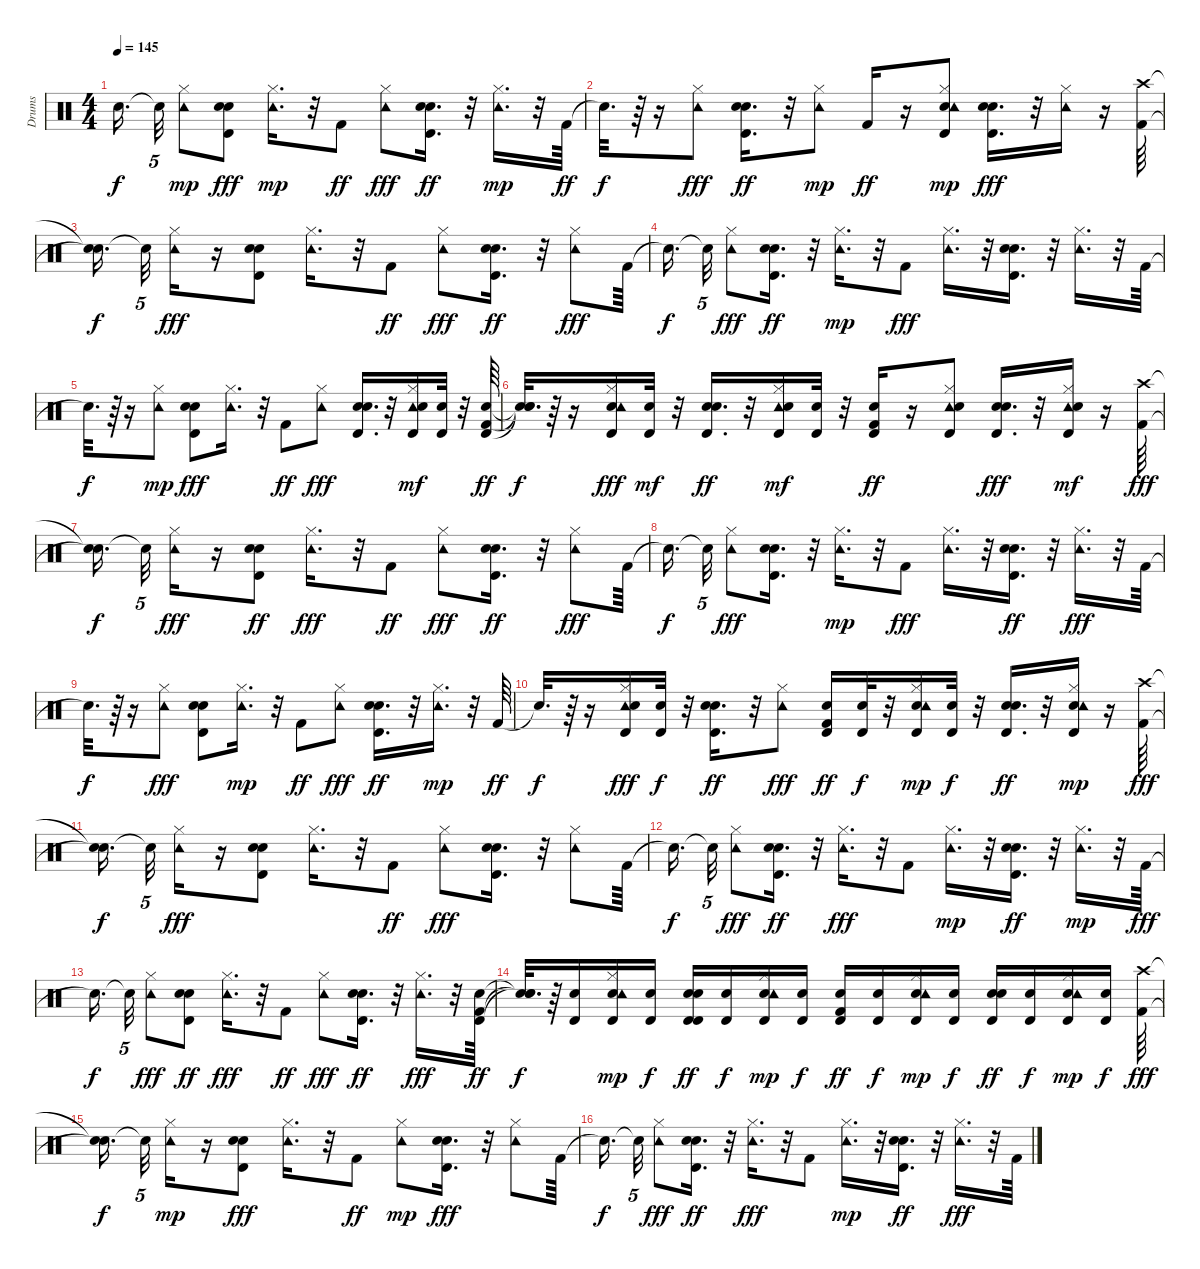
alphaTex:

\track ("Drums" "Drums") {instrument percussion}
\staff {score}
\articulation defaults
\ts (4 4)
\tempo 145
\clef neutral
\ks c "Snare (hit)"{t}.16{d dy f} "Snare (hit)"{t}.32{tu (5 4)}
("Hi-Hat (closed)" "Tambourine (hit)").8{dy mp} ("Snare (hit) 2" "Hand Clap (hit)" "Timbale high (hit)").8{dy fff} ("Hi-Hat (closed)" "Tambourine (hit)").16{d dy mp} r.32 "Kick (hit) 2".8{dy ff} ("Tambourine (hit)" "Hi-Hat (closed)").8{dy fff} ("Hand Clap (hit)" "Snare (hit) 2" "Timbale high (hit)").16{d dy ff} r.32 ("Hi-Hat (closed)" "Tambourine (hit)").16{d dy mp} r.32 "Kick (hit) 2".64{dy ff} |
"Snare (hit)"{t}.32{d dy f} r.64 r.16 ("Tambourine (hit)" "Hi-Hat (closed)").8{dy fff} ("Hand Clap (hit)" "Snare (hit) 2" "Timbale high (hit)").16{d dy ff} r.32 ("Hi-Hat (closed)" "Tambourine (hit)").8{dy mp} "Kick (hit) 2".16{dy ff} r.16 ("Timbale high (hit)" "Snare (hit) 2" "Hi-Hat (closed)" "Tambourine (hit)").8{dy mp} ("Snare (hit) 2" "Timbale high (hit)" "Hand Clap (hit)").16{d dy fff} r.32 ("Tambourine (hit)" "Hi-Hat (closed)").16 r.16 ("Crash high (hit)" "Kick (hit) 2").64 |
("Snare (hit)"{t} "Snare (hit)"{t}).16{d dy f} "Snare (hit)"{t}.32{tu (5 4)} ("Tambourine (hit)" "Hi-Hat (closed)").16{dy fff} r.16 ("Snare (hit) 2" "Timbale high (hit)" "Hand Clap (hit)").8 ("Tambourine (hit)" "Hi-Hat (closed)").16{d} r.32 "Kick (hit) 2".8{dy ff} ("Tambourine (hit)" "Hi-Hat (closed)").8{dy fff} ("Snare (hit) 2" "Hand Clap (hit)" "Timbale high (hit)").16{d dy ff} r.32 ("Tambourine (hit)" "Hi-Hat (closed)").8{dy fff} "Kick (hit) 2".64 |
"Snare (hit)"{t}.16{d dy f} "Snare (hit)"{t}.32{tu (5 4)} ("Tambourine (hit)" "Hi-Hat (closed)").8{dy fff} ("Snare (hit) 2" "Hand Clap (hit)" "Timbale high (hit)").16{d dy ff} r.32 ("Hi-Hat (closed)" "Tambourine (hit)").16{d dy mp} r.32 "Kick (hit) 2".8{dy fff} ("Tambourine (hit)" "Hi-Hat (closed)").16{d} r.32 ("Timbale high (hit)" "Snare (hit) 2" "Hand Clap (hit)").16{d} r.32 ("Tambourine (hit)" "Hi-Hat (closed)").16{d} r.32 "Kick (hit) 2".64 |
"Snare (hit)"{t}.32{d dy f} r.64 r.16 ("Hi-Hat (closed)" "Tambourine (hit)").8{dy mp} ("Timbale high (hit)" "Snare (hit) 2" "Hand Clap (hit)").8{dy fff} ("Tambourine (hit)" "Hi-Hat (closed)").16{d} r.32 "Kick (hit) 2".8{dy ff} ("Tambourine (hit)" "Hi-Hat (closed)").8{dy fff} ("Timbale high (hit)" "Snare (hit) 2" "Hand Clap (hit)").16{d} r.32 ("Hi-Hat (closed)" "Tambourine (hit)" "Timbale high (hit)" "Snare (hit) 2").16{dy mf} ("Timbale high (hit)" "Snare (hit) 2").32 r.32 ("Timbale high (hit)" "Snare (hit) 2" "Kick (hit) 2").64{dy ff} |
("Snare (hit)"{t} "Snare (hit)"{t} "Snare (hit)"{t}).32{d dy f} r.64 r.16 ("Timbale high (hit)" "Snare (hit) 2" "Tambourine (hit)" "Hi-Hat (closed)").16{dy fff} ("Snare (hit) 2" "Timbale high (hit)").32{dy mf} r.32 ("Hand Clap (hit)" "Snare (hit) 2" "Timbale high (hit)").16{d dy ff} r.32 ("Tambourine (hit)" "Snare (hit) 2" "Hi-Hat (closed)" "Timbale high (hit)").16{dy mf} ("Snare (hit) 2" "Timbale high (hit)").32 r.32 ("Snare (hit) 2" "Kick (hit) 2" "Timbale high (hit)").16{dy ff} r.16 ("Tambourine (hit)" "Snare (hit) 2" "Timbale high (hit)" "Hi-Hat (closed)").8 ("Timbale high (hit)" "Snare (hit) 2" "Hand Clap (hit)").16{d dy fff} r.32 ("Tambourine (hit)" "Timbale high (hit)" "Hi-Hat (closed)" "Snare (hit) 2").16{dy mf} r.16 ("Kick (hit) 2" "Crash high (hit)").64{dy fff} |
("Snare (hit)"{t} "Snare (hit)"{t}).16{d dy f} "Snare (hit)"{t}.32{tu (5 4)} ("Tambourine (hit)" "Hi-Hat (closed)").16{dy fff} r.16 ("Timbale high (hit)" "Hand Clap (hit)" "Snare (hit) 2").8{dy ff} ("Tambourine (hit)" "Hi-Hat (closed)").16{d dy fff} r.32 "Kick (hit) 2".8{dy ff} ("Tambourine (hit)" "Hi-Hat (closed)").8{dy fff} ("Hand Clap (hit)" "Snare (hit) 2" "Timbale high (hit)").16{d dy ff} r.32 ("Tambourine (hit)" "Hi-Hat (closed)").8{dy fff} "Kick (hit) 2".64 |
"Snare (hit)"{t}.16{d dy f} "Snare (hit)"{t}.32{tu (5 4)} ("Tambourine (hit)" "Hi-Hat (closed)").8{dy fff} ("Snare (hit) 2" "Timbale high (hit)" "Hand Clap (hit)").16{d} r.32 ("Hi-Hat (closed)" "Tambourine (hit)").16{d dy mp} r.32 "Kick (hit) 2".8{dy fff} ("Tambourine (hit)" "Hi-Hat (closed)").16{d} r.32 ("Hand Clap (hit)" "Snare (hit) 2" "Timbale high (hit)").16{d dy ff} r.32 ("Tambourine (hit)" "Hi-Hat (closed)").16{d dy fff} r.32 "Kick (hit) 2".64 |
"Snare (hit)"{t}.32{d dy f} r.64 r.16 ("Tambourine (hit)" "Hi-Hat (closed)").8{dy fff} ("Snare (hit) 2" "Hand Clap (hit)" "Timbale high (hit)").8 ("Hi-Hat (closed)" "Tambourine (hit)").16{d dy mp} r.32 "Kick (hit) 2".8{dy ff} ("Tambourine (hit)" "Hi-Hat (closed)").8{dy fff} ("Hand Clap (hit)" "Snare (hit) 2" "Timbale high (hit)").16{d dy ff} r.32 ("Hi-Hat (closed)" "Tambourine (hit)").16{d dy mp} r.32 "Kick (hit) 2".64{dy ff} |
"Snare (hit)"{t}.32{d dy f} r.64 r.16 ("Tambourine (hit)" "Snare (hit) 2" "Timbale high (hit)" "Hi-Hat (closed)").16{dy fff} ("Snare (hit) 2" "Timbale high (hit)").32{dy f} r.32 ("Timbale high (hit)" "Hand Clap (hit)" "Snare (hit) 2").16{d dy ff} r.32 ("Tambourine (hit)" "Hi-Hat (closed)").8{dy fff} ("Timbale high (hit)" "Kick (hit) 2" "Snare (hit) 2").16{dy ff} ("Snare (hit) 2" "Timbale high (hit)").32{dy f} r.32 ("Snare (hit) 2" "Timbale high (hit)" "Hi-Hat (closed)" "Tambourine (hit)").16{dy mp} ("Snare (hit) 2" "Timbale high (hit)").32{dy f} r.32 ("Hand Clap (hit)" "Timbale high (hit)" "Snare (hit) 2").16{d dy ff} r.32 ("Snare (hit) 2" "Timbale high (hit)" "Hi-Hat (closed)" "Tambourine (hit)").16{dy mp} r.16 ("Kick (hit) 2" "Crash high (hit)").64{dy fff} |
("Snare (hit)"{t} "Snare (hit)"{t}).16{d dy f} "Snare (hit)"{t}.32{tu (5 4)} ("Tambourine (hit)" "Hi-Hat (closed)").16{dy fff} r.16 ("Timbale high (hit)" "Snare (hit) 2" "Hand Clap (hit)").8 ("Tambourine (hit)" "Hi-Hat (closed)").16{d} r.32 "Kick (hit) 2".8{dy ff} ("Tambourine (hit)" "Hi-Hat (closed)").8{dy fff} ("Snare (hit) 2" "Timbale high (hit)" "Hand Clap (hit)").16{d} r.32 ("Tambourine (hit)" "Hi-Hat (closed)").8 "Kick (hit) 2".64 |
"Snare (hit)"{t}.16{d dy f} "Snare (hit)"{t}.32{tu (5 4)} ("Tambourine (hit)" "Hi-Hat (closed)").8{dy fff} ("Timbale high (hit)" "Hand Clap (hit)" "Snare (hit) 2").16{d dy ff} r.32 ("Tambourine (hit)" "Hi-Hat (closed)").16{d dy fff} r.32 "Kick (hit) 2".8 ("Hi-Hat (closed)" "Tambourine (hit)").16{d dy mp} r.32 ("Timbale high (hit)" "Hand Clap (hit)" "Snare (hit) 2").16{d dy ff} r.32 ("Hi-Hat (closed)" "Tambourine (hit)").16{d dy mp} r.32 "Kick (hit) 2".64{dy fff} |
"Snare (hit)"{t}.16{d dy f} "Snare (hit)"{t}.32{tu (5 4)} ("Tambourine (hit)" "Hi-Hat (closed)").8{dy fff} ("Hand Clap (hit)" "Timbale high (hit)" "Snare (hit) 2").8{dy ff} ("Tambourine (hit)" "Hi-Hat (closed)").16{d dy fff} r.32 "Kick (hit) 2".8{dy ff} ("Tambourine (hit)" "Hi-Hat (closed)").8{dy fff} ("Hand Clap (hit)" "Timbale high (hit)" "Snare (hit) 2").16{d dy ff} r.32 ("Tambourine (hit)" "Hi-Hat (closed)").16{d dy fff} r.32 ("Kick (hit) 2" "Timbale high (hit)" "Snare (hit) 2").64{dy ff} |
("Snare (hit)"{t} "Snare (hit)"{t} "Snare (hit)"{t}).32{d dy f} r.64 ("Snare (hit) 2" "Timbale high (hit)").16 ("Snare (hit) 2" "Timbale high (hit)" "Hi-Hat (closed)" "Tambourine (hit)").16{dy mp} ("Timbale high (hit)" "Snare (hit) 2").16{dy f} ("Timbale high (hit)" "Timbale high (hit)" "Hand Clap (hit)" "Snare (hit) 2").16{dy ff} ("Snare (hit) 2" "Timbale high (hit)").16{dy f} ("Hi-Hat (closed)" "Snare (hit) 2" "Timbale high (hit)" "Tambourine (hit)").16{dy mp} ("Snare (hit) 2" "Timbale high (hit)").16{dy f} ("Kick (hit) 2" "Snare (hit) 2" "Timbale high (hit)").16{dy ff} ("Snare (hit) 2" "Timbale high (hit)").16{dy f} ("Snare (hit) 2" "Hi-Hat (closed)" "Tambourine (hit)" "Timbale high (hit)").16{dy mp} ("Snare (hit) 2" "Timbale high (hit)").16{dy f} ("Hand Clap (hit)" "Snare (hit) 2" "Timbale high (hit)").16{dy ff} ("Timbale high (hit)" "Snare (hit) 2").16{dy f} ("Hi-Hat (closed)" "Snare (hit) 2" "Tambourine (hit)" "Timbale high (hit)").16{dy mp} ("Timbale high (hit)" "Snare (hit) 2").16{dy f} ("Kick (hit) 2" "Crash high (hit)").64{dy fff} |
("Snare (hit)"{t} "Snare (hit)"{t}).16{d dy f} "Snare (hit)"{t}.32{tu (5 4)} ("Hi-Hat (closed)" "Tambourine (hit)").16{dy mp} r.16 ("Timbale high (hit)" "Snare (hit) 2" "Hand Clap (hit)").8{dy fff} ("Tambourine (hit)" "Hi-Hat (closed)").16{d} r.32 "Kick (hit) 2".8{dy ff} ("Hi-Hat (closed)" "Tambourine (hit)").8{dy mp} ("Hand Clap (hit)" "Timbale high (hit)" "Snare (hit) 2").16{d dy fff} r.32 ("Tambourine (hit)" "Hi-Hat (closed)").8 "Kick (hit) 2".64 |
"Snare (hit)"{t}.16{d dy f} "Snare (hit)"{t}.32{tu (5 4)} ("Tambourine (hit)" "Hi-Hat (closed)").8{dy fff} ("Timbale high (hit)" "Hand Clap (hit)" "Snare (hit) 2").16{d dy ff} r.32 ("Tambourine (hit)" "Hi-Hat (closed)").16{d dy fff} r.32 "Kick (hit) 2".8 ("Hi-Hat (closed)" "Tambourine (hit)").16{d dy mp} r.32 ("Timbale high (hit)" "Hand Clap (hit)" "Snare (hit) 2").16{d dy ff} r.32 ("Tambourine (hit)" "Hi-Hat (closed)").16{d dy fff} r.32 "Kick (hit) 2".64
